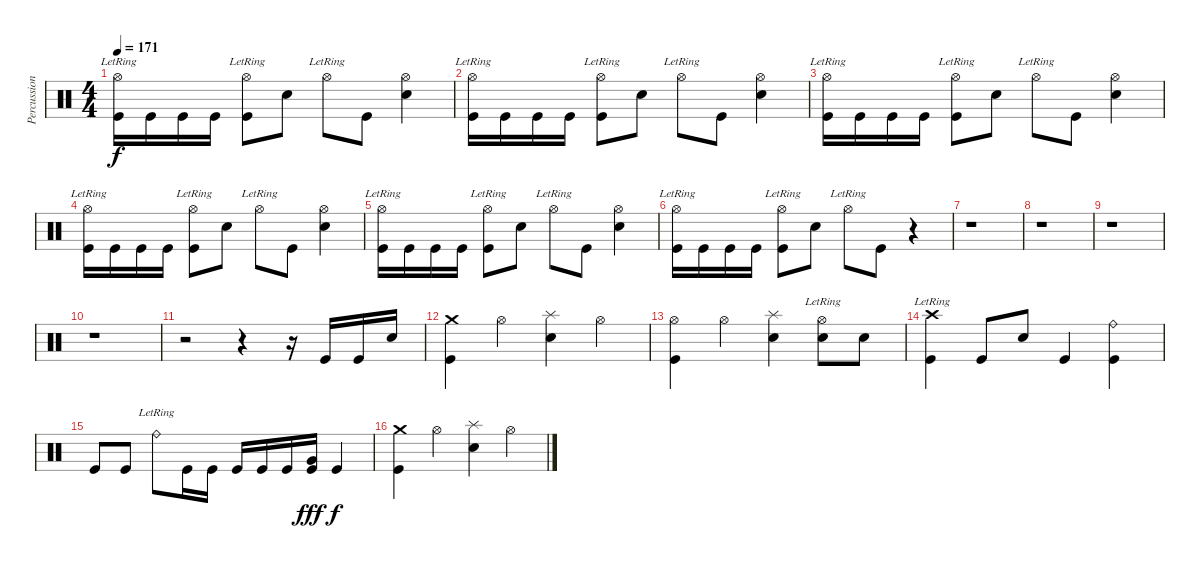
\track ("Percussions" "Percussion") {instrument percussion}
\staff {score}
\articulation defaults
\ts (4 4)
\tempo 171
\clef neutral
\ks c
("Hi-Hat (open)"{lr} "Kick (hit)").16{dy f} "Kick (hit)".16 "Kick (hit)".16 "Kick (hit)".16 ("Hi-Hat (open)"{lr} "Kick (hit)").8 "Snare (hit) 2".8 "Hi-Hat (open)"{lr}.8 "Kick (hit)".8 ("Hi-Hat (open)" "Snare (hit) 2").4 |
("Hi-Hat (open)"{lr} "Kick (hit)").16 "Kick (hit)".16 "Kick (hit)".16 "Kick (hit)".16 ("Hi-Hat (open)"{lr} "Kick (hit)").8 "Snare (hit) 2".8 "Hi-Hat (open)"{lr}.8 "Kick (hit)".8 ("Hi-Hat (open)" "Snare (hit) 2").4 |
("Hi-Hat (open)"{lr} "Kick (hit)").16 "Kick (hit)".16 "Kick (hit)".16 "Kick (hit)".16 ("Hi-Hat (open)"{lr} "Kick (hit)").8 "Snare (hit) 2".8 "Hi-Hat (open)"{lr}.8 "Kick (hit)".8 ("Hi-Hat (open)" "Snare (hit) 2").4 |
("Hi-Hat (open)"{lr} "Kick (hit)").16 "Kick (hit)".16 "Kick (hit)".16 "Kick (hit)".16 ("Hi-Hat (open)"{lr} "Kick (hit)").8 "Snare (hit) 2".8 "Hi-Hat (open)"{lr}.8 "Kick (hit)".8 ("Hi-Hat (open)" "Snare (hit) 2").4 |
("Hi-Hat (open)"{lr} "Kick (hit)").16 "Kick (hit)".16 "Kick (hit)".16 "Kick (hit)".16 ("Hi-Hat (open)"{lr} "Kick (hit)").8 "Snare (hit) 2".8 "Hi-Hat (open)"{lr}.8 "Kick (hit)".8 ("Hi-Hat (open)" "Snare (hit) 2").4 |
("Hi-Hat (open)"{lr} "Kick (hit)").16 "Kick (hit)".16 "Kick (hit)".16 "Kick (hit)".16 ("Hi-Hat (open)"{lr} "Kick (hit)").8 "Snare (hit) 2".8 "Hi-Hat (open)"{lr}.8 "Kick (hit)".8 r.4 |
r.1 |
r.1 |
r.1 |
r.1 |
r.2 r.4 r.16 "Kick (hit)".16 "Kick (hit)".16 "Snare (hit) 2".16 |
("Crash medium (hit)" "Kick (hit)").4 "Hi-Hat (open)".4 ("Splash (hit)" "Snare (hit) 2").4 "Hi-Hat (open)".4 |
("Hi-Hat (open)" "Kick (hit)").4 "Hi-Hat (open)".4 ("Splash (hit)" "Snare (hit) 2").4 ("Hi-Hat (open)"{lr} "Snare (hit) 2").8 "Snare (hit) 2".8 |
("Crash high (hit)"{lr} "Kick (hit)").4 "Kick (hit)".8 "Snare (hit) 2".8 "Kick (hit)".4 ("Ride (bell)" "Kick (hit)").4 |
"Kick (hit)".8 "Kick (hit)".8 "Ride (bell)"{lr}.8 "Kick (hit)".16 "Kick (hit)".16 "Kick (hit)".16 "Kick (hit)".16 "Kick (hit)".16 ("Very Low Tom (hit)" "Kick (hit)").16{dy fff} "Kick (hit)".4{dy f} |
("Crash medium (hit)" "Kick (hit)").4 "Hi-Hat (open)".4 ("Splash (hit)" "Snare (hit) 2").4 "Hi-Hat (open)".4
